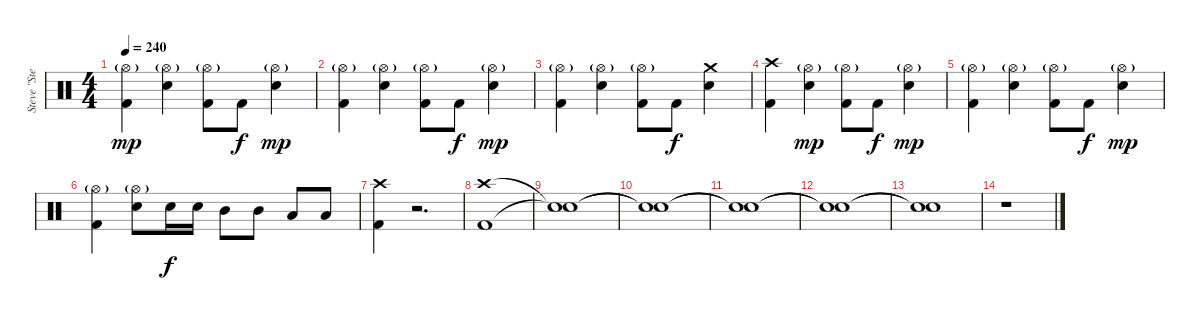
\track ("Steve \"Stevo32\" Jocz " "Steve \"Ste") {instrument percussion}
\staff {score}
\articulation defaults
\ts (4 4)
\tempo 240
\clef neutral
\ks c
("Hi-Hat (open)"{g} "Kick (hit) 2").4{dy mp} ("Hi-Hat (open)"{g} "Electric Snare (hit)").4 ("Hi-Hat (open)"{g} "Kick (hit) 2").8 "Kick (hit) 2".8{dy f} ("Hi-Hat (open)"{g} "Electric Snare (hit)").4{dy mp} |
("Hi-Hat (open)"{g} "Kick (hit) 2").4 ("Hi-Hat (open)"{g} "Electric Snare (hit)").4 ("Hi-Hat (open)"{g} "Kick (hit) 2").8 "Kick (hit) 2".8{dy f} ("Hi-Hat (open)"{g} "Electric Snare (hit)").4{dy mp} |
("Hi-Hat (open)"{g} "Kick (hit) 2").4 ("Hi-Hat (open)"{g} "Electric Snare (hit)").4 ("Hi-Hat (open)"{g} "Kick (hit) 2").8 "Kick (hit) 2".8{dy f} ("Crash medium (hit)" "Electric Snare (hit)").4 |
("Crash high (hit)" "Kick (hit) 2").4 ("Hi-Hat (open)"{g} "Electric Snare (hit)").4{dy mp} ("Hi-Hat (open)"{g} "Kick (hit) 2").8 "Kick (hit) 2".8{dy f} ("Hi-Hat (open)"{g} "Electric Snare (hit)").4{dy mp} |
("Hi-Hat (open)"{g} "Kick (hit) 2").4 ("Hi-Hat (open)"{g} "Electric Snare (hit)").4 ("Hi-Hat (open)"{g} "Kick (hit) 2").8 "Kick (hit) 2".8{dy f} ("Hi-Hat (open)"{g} "Electric Snare (hit)").4{dy mp} |
("Hi-Hat (open)"{g} "Kick (hit) 2").4 ("Hi-Hat (open)"{g} "Electric Snare (hit)").8 "Electric Snare (hit)".16{dy f} "Electric Snare (hit)".16 "Mid Tom (hit)".8 "Mid Tom (hit)".8 "Low Tom (hit)".8 "Low Tom (hit)".8 |
("Crash high (hit)" "Kick (hit) 2").4 r.2{d} |
("Crash high (hit)" "Kick (hit) 2").1{volume 4} |
("Snare (hit)"{t} "Snare (hit)"{t}).1 |
("Snare (hit)"{t} "Snare (hit)"{t}).1 |
("Snare (hit)"{t} "Snare (hit)"{t}).1 |
("Snare (hit)"{t} "Snare (hit)"{t}).1{volume 9} |
("Snare (hit)"{t} "Snare (hit)"{t}).1 |
r.1
